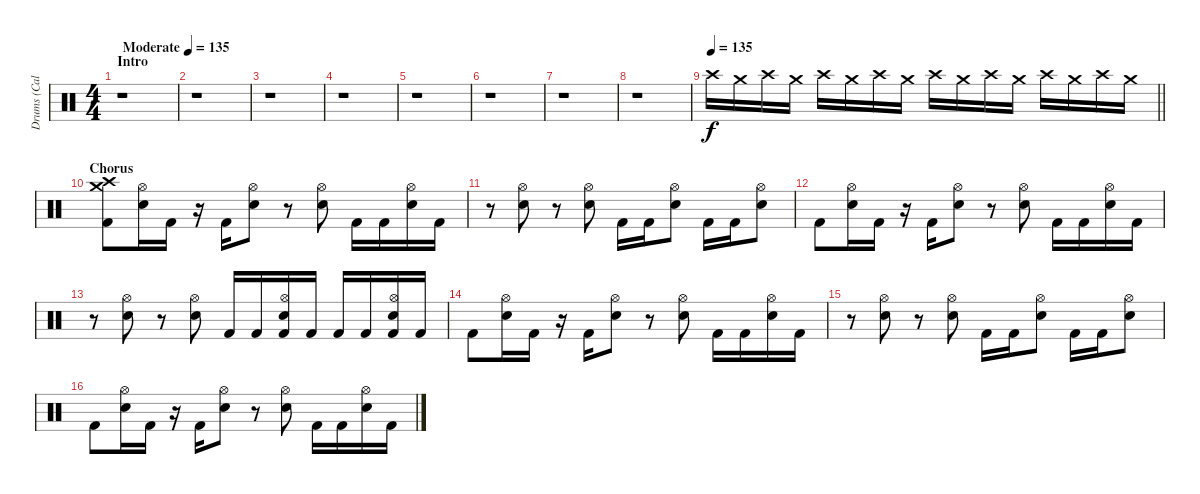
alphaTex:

\track ("Drums (Caleb Burton)" "Drums (Cal") {instrument percussion}
\staff {score}
\articulation defaults
\ts (4 4)
\section ("" "Intro")
\tempo (135 "Moderate")
\tempo 125
\tempo (135 "Moderate")
\clef neutral
\ks c
r.1{dy f} |
r.1 |
r.1 |
r.1 |
r.1 |
r.1 |
r.1 |
r.1{volume 0} |
\tempo 135
\barLineRight lightlight "Crash high (hit)".16{volume 13} "Crash medium (hit)".16 "Crash high (hit)".16 "Crash medium (hit)".16 "Crash high (hit)".16 "Crash medium (hit)".16 "Crash high (hit)".16 "Crash medium (hit)".16 "Crash high (hit)".16 "Crash medium (hit)".16 "Crash high (hit)".16 "Crash medium (hit)".16 "Crash high (hit)".16 "Crash medium (hit)".16 "Crash high (hit)".16 "Crash medium (hit)".16
|
\section ("" "Chorus")
("Crash high (hit)" "Crash medium (hit)" "Kick (hit) 2").8 ("Hi-Hat (open)" "Electric Snare (hit)").16 "Kick (hit) 2".16 r.16 "Kick (hit) 2".16 ("Hi-Hat (open)" "Electric Snare (hit)").8 r.8 ("Hi-Hat (open)" "Electric Snare (hit)").8 "Kick (hit) 2".16 "Kick (hit) 2".16 ("Hi-Hat (open)" "Electric Snare (hit)").16 "Kick (hit) 2".16 |
r.8 ("Hi-Hat (open)" "Electric Snare (hit)").8 r.8 ("Hi-Hat (open)" "Electric Snare (hit)").8 "Kick (hit) 2".16 "Kick (hit) 2".16 ("Hi-Hat (open)" "Electric Snare (hit)").8 "Kick (hit) 2".16 "Kick (hit) 2".16 ("Hi-Hat (open)" "Electric Snare (hit)").8 |
"Kick (hit) 2".8 ("Hi-Hat (open)" "Electric Snare (hit)").16 "Kick (hit) 2".16 r.16 "Kick (hit) 2".16 ("Hi-Hat (open)" "Electric Snare (hit)").8 r.8 ("Hi-Hat (open)" "Electric Snare (hit)").8 "Kick (hit) 2".16 "Kick (hit) 2".16 ("Hi-Hat (open)" "Electric Snare (hit)").16 "Kick (hit) 2".16 |
r.8 ("Hi-Hat (open)" "Electric Snare (hit)").8 r.8 ("Hi-Hat (open)" "Electric Snare (hit)").8 "Kick (hit) 2".16 "Kick (hit) 2".16 ("Hi-Hat (open)" "Electric Snare (hit)" "Kick (hit) 2").16 "Kick (hit) 2".16 "Kick (hit) 2".16 "Kick (hit) 2".16 ("Hi-Hat (open)" "Electric Snare (hit)" "Kick (hit) 2").16 "Kick (hit) 2".16 |
"Kick (hit) 2".8 ("Hi-Hat (open)" "Electric Snare (hit)").16 "Kick (hit) 2".16 r.16 "Kick (hit) 2".16 ("Hi-Hat (open)" "Electric Snare (hit)").8 r.8 ("Hi-Hat (open)" "Electric Snare (hit)").8 "Kick (hit) 2".16 "Kick (hit) 2".16 ("Hi-Hat (open)" "Electric Snare (hit)").16 "Kick (hit) 2".16 |
r.8 ("Hi-Hat (open)" "Electric Snare (hit)").8 r.8 ("Hi-Hat (open)" "Electric Snare (hit)").8 "Kick (hit) 2".16 "Kick (hit) 2".16 ("Hi-Hat (open)" "Electric Snare (hit)").8 "Kick (hit) 2".16 "Kick (hit) 2".16 ("Hi-Hat (open)" "Electric Snare (hit)").8 |
"Kick (hit) 2".8 ("Hi-Hat (open)" "Electric Snare (hit)").16 "Kick (hit) 2".16 r.16 "Kick (hit) 2".16 ("Hi-Hat (open)" "Electric Snare (hit)").8 r.8 ("Hi-Hat (open)" "Electric Snare (hit)").8 "Kick (hit) 2".16 "Kick (hit) 2".16 ("Hi-Hat (open)" "Electric Snare (hit)").16 "Kick (hit) 2".16
